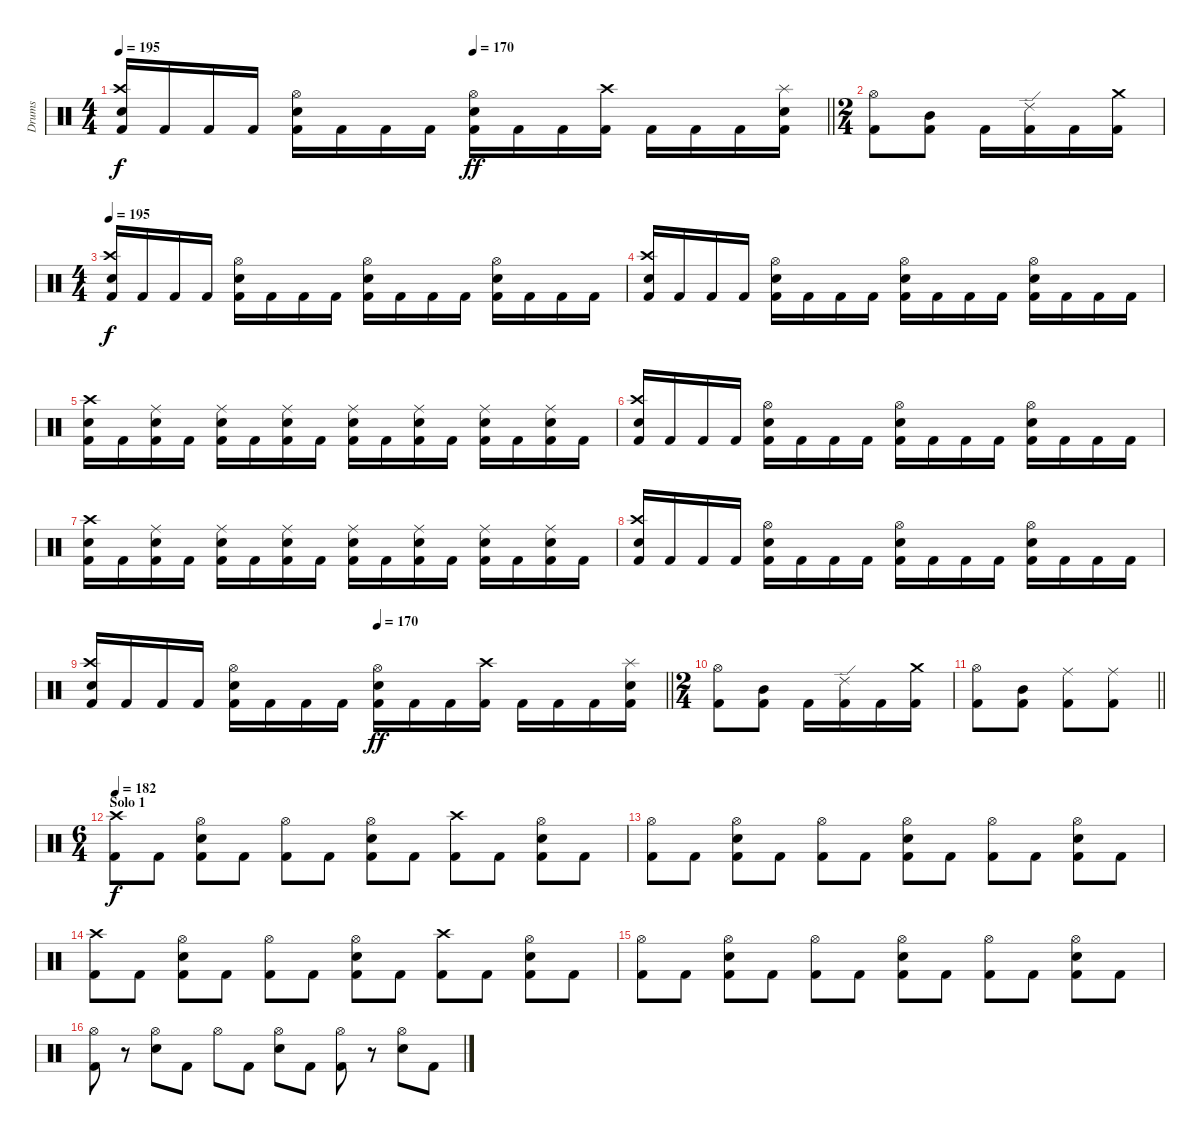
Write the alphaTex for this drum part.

\track ("Drums" "Drums") {instrument percussion}
\staff {score}
\articulation defaults
\ts (4 4)
\tempo 195
\tempo (170 0.5)
\clef neutral
\barLineRight lightlight
\ks c
("Kick (hit) 2" "Crash high (hit)" "Electric Snare (hit)").16{dy f} "Kick (hit) 2".16 "Kick (hit) 2".16 "Kick (hit) 2".16 ("Kick (hit) 2" "Electric Snare (hit)" "Hi-Hat (open)").16 "Kick (hit) 2".16 "Kick (hit) 2".16 "Kick (hit) 2".16 ("Kick (hit) 2" "Electric Snare (hit)" "Hi-Hat (open)").16{dy ff} "Kick (hit) 2".16 "Kick (hit) 2".16 ("Kick (hit) 2" "Crash high (hit)").16 "Kick (hit) 2".16 "Kick (hit) 2".16 "Kick (hit) 2".16 ("Kick (hit) 2" "Electric Snare (hit)" "Splash (hit)").16 |
\ts (2 4)
("Kick (hit) 2" "Hi-Hat (open)").8 ("Kick (hit) 2" "Mid Tom (hit)").8 "Kick (hit) 2".16 ("Kick (hit) 2" "Ride (edge) 2").16 "Kick (hit) 2".16 ("Kick (hit) 2" "Crash medium (hit)").16 |
\ts (4 4)
\tempo 195
("Kick (hit) 2" "Crash high (hit)" "Electric Snare (hit)").16{dy f} "Kick (hit) 2".16 "Kick (hit) 2".16 "Kick (hit) 2".16 ("Kick (hit) 2" "Electric Snare (hit)" "Hi-Hat (open)").16 "Kick (hit) 2".16 "Kick (hit) 2".16 "Kick (hit) 2".16 ("Kick (hit) 2" "Electric Snare (hit)" "Hi-Hat (open)").16 "Kick (hit) 2".16 "Kick (hit) 2".16 "Kick (hit) 2".16 ("Kick (hit) 2" "Electric Snare (hit)" "Hi-Hat (open)").16 "Kick (hit) 2".16 "Kick (hit) 2".16 "Kick (hit) 2".16 |
("Kick (hit) 2" "Crash high (hit)" "Electric Snare (hit)").16 "Kick (hit) 2".16 "Kick (hit) 2".16 "Kick (hit) 2".16 ("Kick (hit) 2" "Electric Snare (hit)" "Hi-Hat (open)").16 "Kick (hit) 2".16 "Kick (hit) 2".16 "Kick (hit) 2".16 ("Kick (hit) 2" "Electric Snare (hit)" "Hi-Hat (open)").16 "Kick (hit) 2".16 "Kick (hit) 2".16 "Kick (hit) 2".16 ("Kick (hit) 2" "Electric Snare (hit)" "Hi-Hat (open)").16 "Kick (hit) 2".16 "Kick (hit) 2".16 "Kick (hit) 2".16 |
("Kick (hit) 2" "Electric Snare (hit)" "Crash high (hit)").16 "Kick (hit) 2".16 ("Kick (hit) 2" "Electric Snare (hit)" "Ride (middle)").16 "Kick (hit) 2".16 ("Kick (hit) 2" "Electric Snare (hit)" "Ride (middle)").16 "Kick (hit) 2".16 ("Kick (hit) 2" "Electric Snare (hit)" "Ride (middle)").16 "Kick (hit) 2".16 ("Kick (hit) 2" "Electric Snare (hit)" "Ride (middle)").16 "Kick (hit) 2".16 ("Kick (hit) 2" "Electric Snare (hit)" "Ride (middle)").16 "Kick (hit) 2".16 ("Kick (hit) 2" "Electric Snare (hit)" "Ride (middle)").16 "Kick (hit) 2".16 ("Kick (hit) 2" "Electric Snare (hit)" "Ride (middle)").16 "Kick (hit) 2".16 |
("Kick (hit) 2" "Crash high (hit)" "Electric Snare (hit)").16 "Kick (hit) 2".16 "Kick (hit) 2".16 "Kick (hit) 2".16 ("Kick (hit) 2" "Electric Snare (hit)" "Hi-Hat (open)").16 "Kick (hit) 2".16 "Kick (hit) 2".16 "Kick (hit) 2".16 ("Kick (hit) 2" "Electric Snare (hit)" "Hi-Hat (open)").16 "Kick (hit) 2".16 "Kick (hit) 2".16 "Kick (hit) 2".16 ("Kick (hit) 2" "Electric Snare (hit)" "Hi-Hat (open)").16 "Kick (hit) 2".16 "Kick (hit) 2".16 "Kick (hit) 2".16 |
("Kick (hit) 2" "Electric Snare (hit)" "Crash high (hit)").16 "Kick (hit) 2".16 ("Kick (hit) 2" "Electric Snare (hit)" "Ride (middle)").16 "Kick (hit) 2".16 ("Kick (hit) 2" "Electric Snare (hit)" "Ride (middle)").16 "Kick (hit) 2".16 ("Kick (hit) 2" "Electric Snare (hit)" "Ride (middle)").16 "Kick (hit) 2".16 ("Kick (hit) 2" "Electric Snare (hit)" "Ride (middle)").16 "Kick (hit) 2".16 ("Kick (hit) 2" "Electric Snare (hit)" "Ride (middle)").16 "Kick (hit) 2".16 ("Kick (hit) 2" "Electric Snare (hit)" "Ride (middle)").16 "Kick (hit) 2".16 ("Kick (hit) 2" "Electric Snare (hit)" "Ride (middle)").16 "Kick (hit) 2".16 |
("Kick (hit) 2" "Crash high (hit)" "Electric Snare (hit)").16 "Kick (hit) 2".16 "Kick (hit) 2".16 "Kick (hit) 2".16 ("Kick (hit) 2" "Electric Snare (hit)" "Hi-Hat (open)").16 "Kick (hit) 2".16 "Kick (hit) 2".16 "Kick (hit) 2".16 ("Kick (hit) 2" "Electric Snare (hit)" "Hi-Hat (open)").16 "Kick (hit) 2".16 "Kick (hit) 2".16 "Kick (hit) 2".16 ("Kick (hit) 2" "Electric Snare (hit)" "Hi-Hat (open)").16 "Kick (hit) 2".16 "Kick (hit) 2".16 "Kick (hit) 2".16 |
\tempo (170 0.5)
\barLineRight lightlight
("Kick (hit) 2" "Crash high (hit)" "Electric Snare (hit)").16 "Kick (hit) 2".16 "Kick (hit) 2".16 "Kick (hit) 2".16 ("Kick (hit) 2" "Electric Snare (hit)" "Hi-Hat (open)").16 "Kick (hit) 2".16 "Kick (hit) 2".16 "Kick (hit) 2".16 ("Kick (hit) 2" "Electric Snare (hit)" "Hi-Hat (open)").16{dy ff} "Kick (hit) 2".16 "Kick (hit) 2".16 ("Kick (hit) 2" "Crash high (hit)").16 "Kick (hit) 2".16 "Kick (hit) 2".16 "Kick (hit) 2".16 ("Kick (hit) 2" "Electric Snare (hit)" "Splash (hit)").16 |
\ts (2 4)
("Kick (hit) 2" "Hi-Hat (open)").8 ("Kick (hit) 2" "Mid Tom (hit)").8 "Kick (hit) 2".16 ("Kick (hit) 2" "Ride (edge) 2").16 "Kick (hit) 2".16 ("Kick (hit) 2" "Crash medium (hit)").16 |
\barLineRight lightlight
("Kick (hit) 2" "Hi-Hat (open)").8 ("Kick (hit) 2" "Mid Tom (hit)").8 ("Kick (hit) 2" "Ride (middle)").8 ("Kick (hit) 2" "Ride (middle)").8 |
\ts (6 4)
\section ("" "Solo 1")
\tempo 182
("Crash high (hit)" "Kick (hit) 2").8{dy f} "Kick (hit) 2".8 ("Hi-Hat (open)" "Electric Snare (hit)" "Kick (hit) 2").8 "Kick (hit) 2".8 ("Hi-Hat (open)" "Kick (hit) 2").8 "Kick (hit) 2".8 ("Hi-Hat (open)" "Electric Snare (hit)" "Kick (hit) 2").8 "Kick (hit) 2".8 ("Crash high (hit)" "Kick (hit) 2").8 "Kick (hit) 2".8 ("Hi-Hat (open)" "Electric Snare (hit)" "Kick (hit) 2").8 "Kick (hit) 2".8 |
("Hi-Hat (open)" "Kick (hit) 2").8 "Kick (hit) 2".8 ("Hi-Hat (open)" "Electric Snare (hit)" "Kick (hit) 2").8 "Kick (hit) 2".8 ("Hi-Hat (open)" "Kick (hit) 2").8 "Kick (hit) 2".8 ("Hi-Hat (open)" "Electric Snare (hit)" "Kick (hit) 2").8 "Kick (hit) 2".8 ("Hi-Hat (open)" "Kick (hit) 2").8 "Kick (hit) 2".8 ("Hi-Hat (open)" "Electric Snare (hit)" "Kick (hit) 2").8 "Kick (hit) 2".8 |
("Crash high (hit)" "Kick (hit) 2").8 "Kick (hit) 2".8 ("Hi-Hat (open)" "Electric Snare (hit)" "Kick (hit) 2").8 "Kick (hit) 2".8 ("Hi-Hat (open)" "Kick (hit) 2").8 "Kick (hit) 2".8 ("Hi-Hat (open)" "Electric Snare (hit)" "Kick (hit) 2").8 "Kick (hit) 2".8 ("Crash high (hit)" "Kick (hit) 2").8 "Kick (hit) 2".8 ("Hi-Hat (open)" "Electric Snare (hit)" "Kick (hit) 2").8 "Kick (hit) 2".8 |
("Hi-Hat (open)" "Kick (hit) 2").8 "Kick (hit) 2".8 ("Hi-Hat (open)" "Electric Snare (hit)" "Kick (hit) 2").8 "Kick (hit) 2".8 ("Hi-Hat (open)" "Kick (hit) 2").8 "Kick (hit) 2".8 ("Hi-Hat (open)" "Electric Snare (hit)" "Kick (hit) 2").8 "Kick (hit) 2".8 ("Hi-Hat (open)" "Kick (hit) 2").8 "Kick (hit) 2".8 ("Hi-Hat (open)" "Electric Snare (hit)" "Kick (hit) 2").8 "Kick (hit) 2".8 |
("Hi-Hat (open)" "Kick (hit) 2").8 r.8 ("Hi-Hat (open)" "Electric Snare (hit)").8 "Kick (hit) 2".8 "Hi-Hat (open)".8 "Kick (hit) 2".8 ("Hi-Hat (open)" "Electric Snare (hit)").8 "Kick (hit) 2".8 ("Hi-Hat (open)" "Kick (hit) 2").8 r.8 ("Hi-Hat (open)" "Electric Snare (hit)").8 "Kick (hit) 2".8
